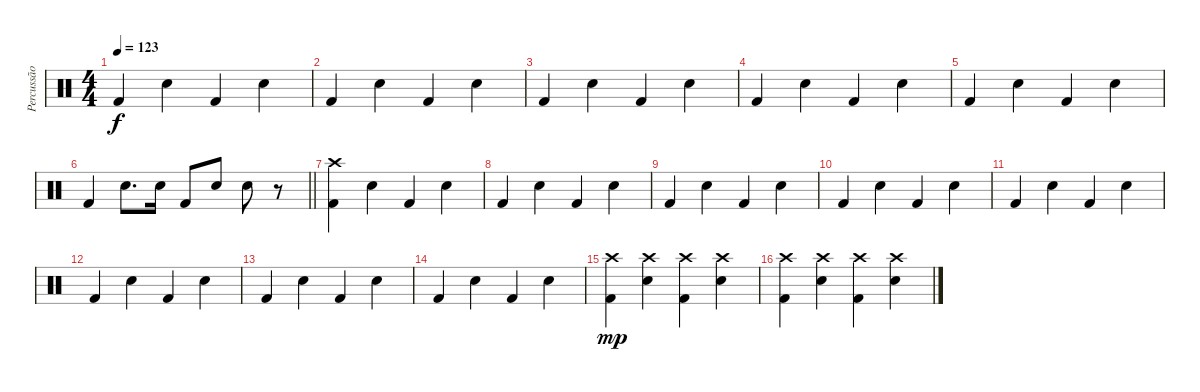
\track ("Percussão" "Percussão") {instrument percussion}
\staff {score}
\articulation defaults
\ts (4 4)
\tempo 123
\clef neutral
\ks c "Kick (hit) 2".4{dy f} "Snare (hit) 2".4 "Kick (hit) 2".4 "Snare (hit) 2".4
|
"Kick (hit) 2".4 "Snare (hit) 2".4 "Kick (hit) 2".4 "Snare (hit) 2".4 |
"Kick (hit) 2".4 "Snare (hit) 2".4 "Kick (hit) 2".4 "Snare (hit) 2".4 |
"Kick (hit) 2".4 "Snare (hit) 2".4 "Kick (hit) 2".4 "Snare (hit) 2".4 |
"Kick (hit) 2".4 "Snare (hit) 2".4 "Kick (hit) 2".4 "Snare (hit) 2".4 |
\barLineRight lightlight "Kick (hit) 2".4 "Snare (hit) 2".8{d} "Snare (hit) 2".16 "Kick (hit) 2".8 "Snare (hit) 2".8 "Snare (hit) 2".8
r.8 |
("Crash high (hit)" "Kick (hit) 2").4 "Snare (hit) 2".4 "Kick (hit) 2".4 "Snare (hit) 2".4 |
"Kick (hit) 2".4 "Snare (hit) 2".4 "Kick (hit) 2".4 "Snare (hit) 2".4 |
"Kick (hit) 2".4 "Snare (hit) 2".4 "Kick (hit) 2".4 "Snare (hit) 2".4 |
"Kick (hit) 2".4 "Snare (hit) 2".4 "Kick (hit) 2".4 "Snare (hit) 2".4 |
"Kick (hit) 2".4 "Snare (hit) 2".4 "Kick (hit) 2".4 "Snare (hit) 2".4 |
"Kick (hit) 2".4 "Snare (hit) 2".4 "Kick (hit) 2".4 "Snare (hit) 2".4 |
"Kick (hit) 2".4 "Snare (hit) 2".4 "Kick (hit) 2".4 "Snare (hit) 2".4 |
"Kick (hit) 2".4 "Snare (hit) 2".4 "Kick (hit) 2".4 "Snare (hit) 2".4 |
("Crash high (hit)" "Kick (hit) 2").4{dy mp} ("Crash high (hit)" "Snare (hit) 2").4 ("Crash high (hit)" "Kick (hit) 2").4 ("Crash high (hit)" "Snare (hit) 2").4 |
("Crash high (hit)" "Kick (hit) 2").4 ("Crash high (hit)" "Snare (hit) 2").4 ("Crash high (hit)" "Kick (hit) 2").4 ("Crash high (hit)" "Snare (hit) 2").4
